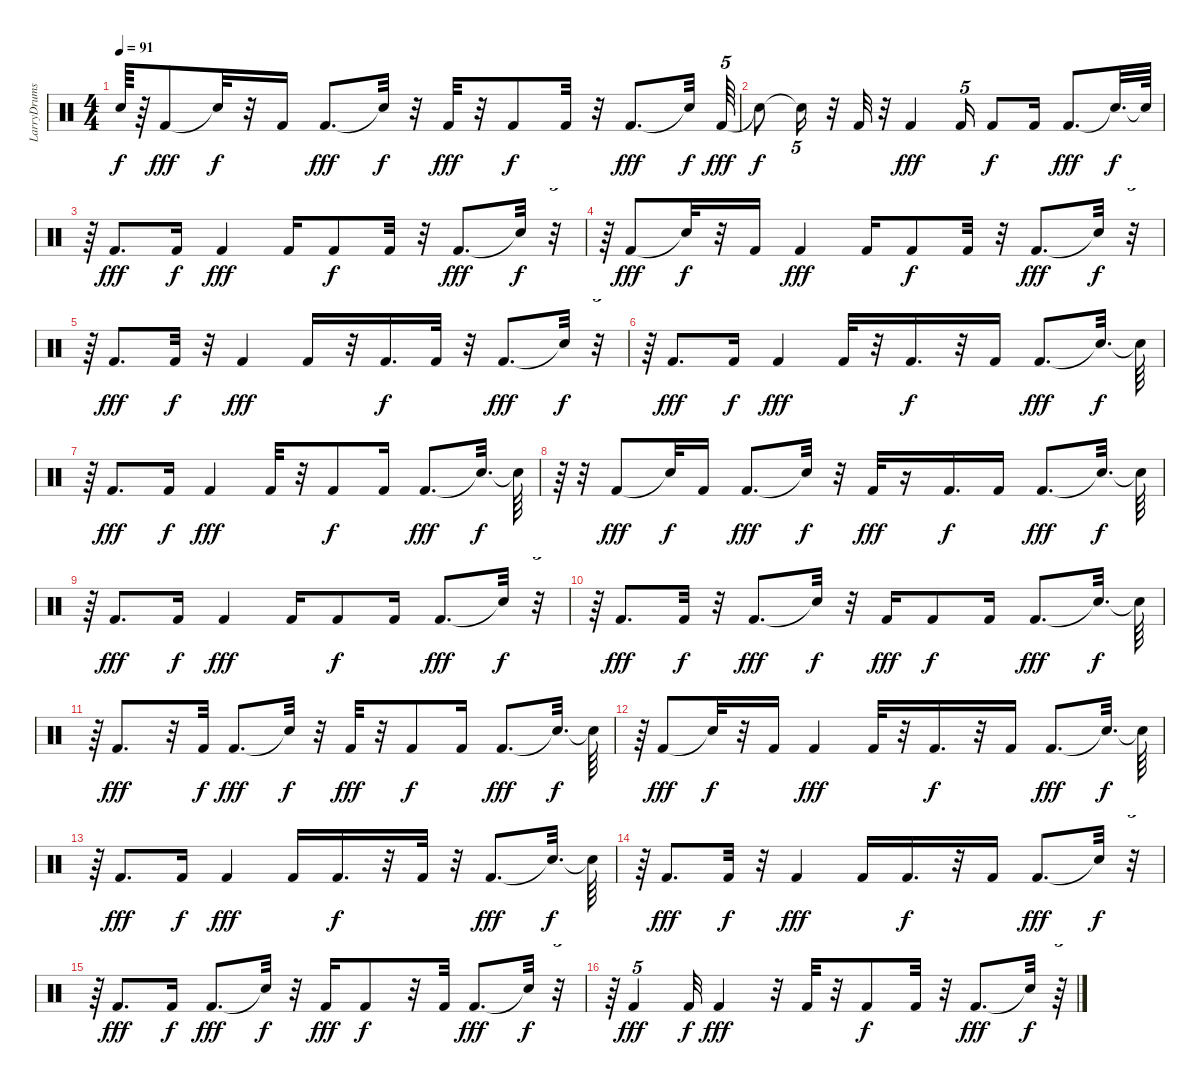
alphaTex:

\track ("LarryDrums" "LarryDrums") {instrument percussion}
\staff {score}
\articulation defaults
\ts (4 4)
\tempo 91
\clef neutral
\ks c "Snare (hit)"{t}.64{dy f}
r.64 "Kick (hit) 2".8{dy fff} "Snare (hit)"{t}.32{dy f} r.32 "Kick (hit) 2".16 "Kick (hit) 2".8{d dy fff} "Snare (hit)"{t}.32{dy f} r.32 "Kick (hit) 2".32{dy fff} r.32 "Kick (hit) 2".8{dy f} "Kick (hit) 2".32 r.32 "Kick (hit) 2".8{d dy fff} "Snare (hit)"{t}.32{dy f} "Kick (hit) 2".64{tu (5 4) dy fff} |
"Snare (hit)"{t}.8{dy f} "Snare (hit)"{t}.16{tu (5 4)} r.32 "Kick (hit) 2".32 r.32 "Kick (hit) 2".4{dy fff} "Kick (hit) 2".16{tu (5 4)} "Kick (hit) 2".8{dy f} "Kick (hit) 2".16 "Kick (hit) 2".8{d dy fff} "Snare (hit)"{t}.32{d dy f} "Snare (hit)"{t}.64 |
r.64 "Kick (hit) 2".8{d dy fff} "Kick (hit) 2".16{dy f} "Kick (hit) 2".4{dy fff} "Kick (hit) 2".16 "Kick (hit) 2".8{dy f} "Kick (hit) 2".32 r.32 "Kick (hit) 2".8{d dy fff} "Snare (hit)"{t}.32{dy f} r.32{tu (5 4)} |
r.64 "Kick (hit) 2".8{dy fff} "Snare (hit)"{t}.32{dy f} r.32 "Kick (hit) 2".16 "Kick (hit) 2".4{dy fff} "Kick (hit) 2".16 "Kick (hit) 2".8{dy f} "Kick (hit) 2".32 r.32 "Kick (hit) 2".8{d dy fff} "Snare (hit)"{t}.32{dy f} r.32{tu (5 4)} |
r.64 "Kick (hit) 2".8{d dy fff} "Kick (hit) 2".32{dy f} r.32 "Kick (hit) 2".4{dy fff} "Kick (hit) 2".16 r.32 "Kick (hit) 2".16{d dy f} "Kick (hit) 2".32 r.32 "Kick (hit) 2".8{d dy fff} "Snare (hit)"{t}.32{dy f} r.32{tu (5 4)} |
r.64 "Kick (hit) 2".8{d dy fff} "Kick (hit) 2".16{dy f} "Kick (hit) 2".4{dy fff} "Kick (hit) 2".32 r.32 "Kick (hit) 2".16{d dy f} r.32 "Kick (hit) 2".16 "Kick (hit) 2".8{d dy fff} "Snare (hit)"{t}.32{d dy f} "Snare (hit)"{t}.64 |
r.64 "Kick (hit) 2".8{d dy fff} "Kick (hit) 2".16{dy f} "Kick (hit) 2".4{dy fff} "Kick (hit) 2".32 r.32 "Kick (hit) 2".8{dy f} "Kick (hit) 2".16 "Kick (hit) 2".8{d dy fff} "Snare (hit)"{t}.32{d dy f} "Snare (hit)"{t}.64 |
r.64 r.32 "Kick (hit) 2".8{dy fff} "Snare (hit)"{t}.32{dy f} "Kick (hit) 2".16 "Kick (hit) 2".8{d dy fff} "Snare (hit)"{t}.32{dy f} r.32 "Kick (hit) 2".32{dy fff} r.16 "Kick (hit) 2".16{d dy f} "Kick (hit) 2".16 "Kick (hit) 2".8{d dy fff} "Snare (hit)"{t}.32{d dy f} "Snare (hit)"{t}.64 |
r.64 "Kick (hit) 2".8{d dy fff} "Kick (hit) 2".16{dy f} "Kick (hit) 2".4{dy fff} "Kick (hit) 2".16 "Kick (hit) 2".8{dy f} "Kick (hit) 2".16 "Kick (hit) 2".8{d dy fff} "Snare (hit)"{t}.32{dy f} r.32{tu (5 4)} |
r.64 "Kick (hit) 2".8{d dy fff} "Kick (hit) 2".32{dy f} r.32 "Kick (hit) 2".8{d dy fff} "Snare (hit)"{t}.32{dy f} r.32 "Kick (hit) 2".16{dy fff} "Kick (hit) 2".8{dy f} "Kick (hit) 2".16 "Kick (hit) 2".8{d dy fff} "Snare (hit)"{t}.32{d dy f} "Snare (hit)"{t}.64 |
r.64 "Kick (hit) 2".8{d dy fff} r.32 "Kick (hit) 2".32{dy f} "Kick (hit) 2".8{d dy fff} "Snare (hit)"{t}.32{dy f} r.32 "Kick (hit) 2".32{dy fff} r.32 "Kick (hit) 2".8{dy f} "Kick (hit) 2".16 "Kick (hit) 2".8{d dy fff} "Snare (hit)"{t}.32{d dy f} "Snare (hit)"{t}.64 |
r.64 "Kick (hit) 2".8{dy fff} "Snare (hit)"{t}.32{dy f} r.32 "Kick (hit) 2".16 "Kick (hit) 2".4{dy fff} "Kick (hit) 2".32 r.32 "Kick (hit) 2".16{d dy f} r.32 "Kick (hit) 2".16 "Kick (hit) 2".8{d dy fff} "Snare (hit)"{t}.32{d dy f} "Snare (hit)"{t}.64 |
r.64 "Kick (hit) 2".8{d dy fff} "Kick (hit) 2".16{dy f} "Kick (hit) 2".4{dy fff} "Kick (hit) 2".16 "Kick (hit) 2".16{d dy f} r.32 "Kick (hit) 2".32 r.32 "Kick (hit) 2".8{d dy fff} "Snare (hit)"{t}.32{d dy f} "Snare (hit)"{t}.64 |
r.64 "Kick (hit) 2".8{d dy fff} "Kick (hit) 2".32{dy f} r.32 "Kick (hit) 2".4{dy fff} "Kick (hit) 2".16 "Kick (hit) 2".16{d dy f} r.32 "Kick (hit) 2".16 "Kick (hit) 2".8{d dy fff} "Snare (hit)"{t}.32{dy f} r.32{tu (5 4)} |
r.64 "Kick (hit) 2".8{d dy fff} "Kick (hit) 2".16{dy f} "Kick (hit) 2".8{d dy fff} "Snare (hit)"{t}.32{dy f} r.32 "Kick (hit) 2".16{dy fff} "Kick (hit) 2".8{dy f} r.32 "Kick (hit) 2".32 "Kick (hit) 2".8{d dy fff} "Snare (hit)"{t}.32{dy f} r.32{tu (5 4)} |
r.64 "Kick (hit) 2".4{tu (5 4) dy fff} "Kick (hit) 2".32{dy f} "Kick (hit) 2".4{dy fff} r.32 "Kick (hit) 2".32 r.32 "Kick (hit) 2".8{dy f} "Kick (hit) 2".32 r.32 "Kick (hit) 2".8{d dy fff} "Snare (hit)"{t}.32{dy f} r.64{tu (5 4)}
